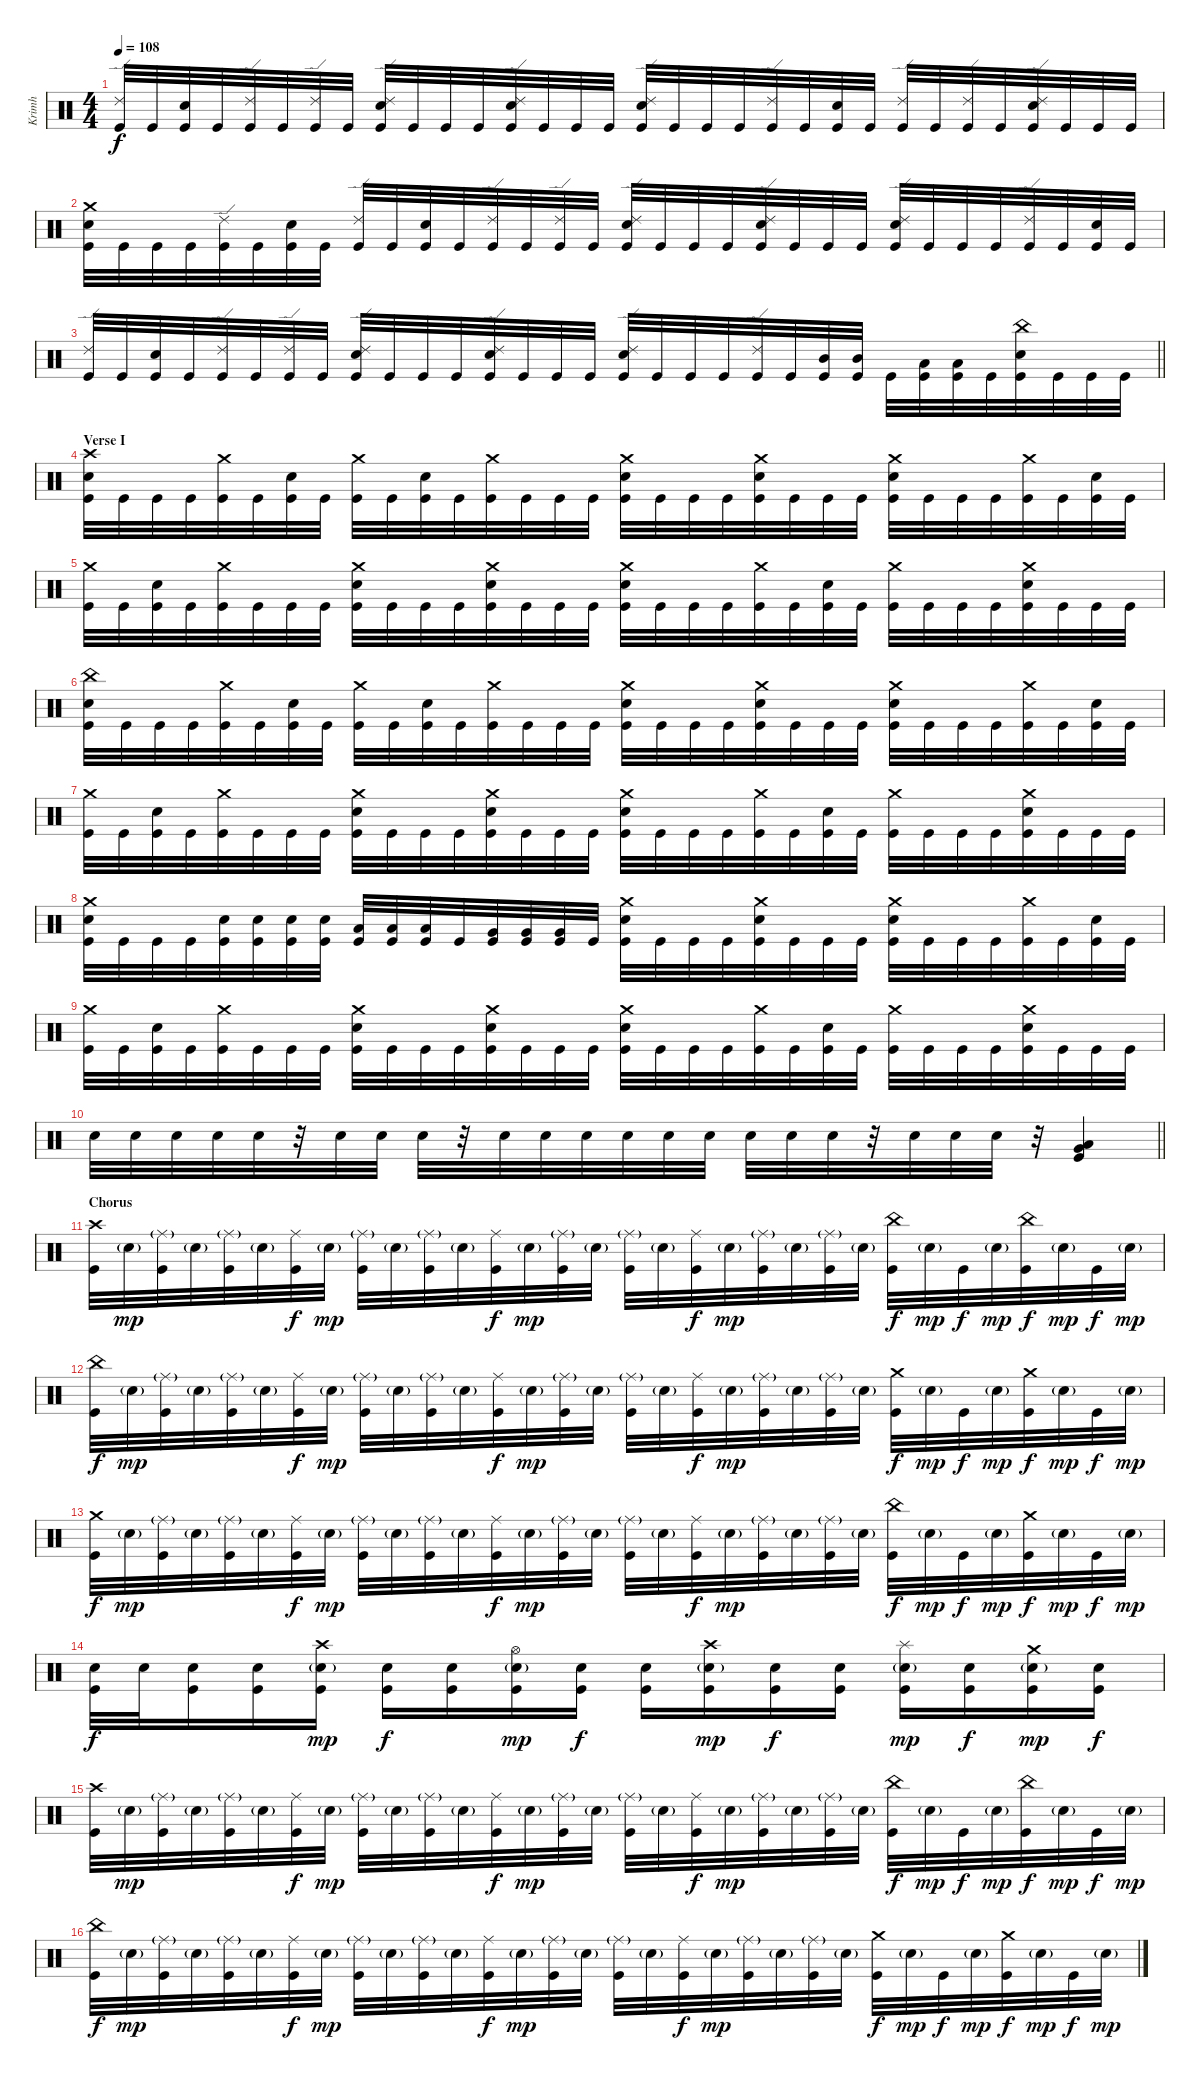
\track ("Krimh" "Krimh") {instrument percussion}
\staff {score}
\articulation defaults
\ts (4 4)
\tempo 108
\clef neutral
\ks c
("Ride (edge) 2" "Kick (hit)").32{dy f} "Kick (hit)".32 ("Electric Snare (hit)" "Kick (hit)").32 "Kick (hit)".32 ("Ride (edge) 2" "Kick (hit)").32 "Kick (hit)".32 ("Ride (edge) 2" "Kick (hit)").32 "Kick (hit)".32 ("Ride (edge) 2" "Electric Snare (hit)" "Kick (hit)").32 "Kick (hit)".32 "Kick (hit)".32 "Kick (hit)".32 ("Ride (edge) 2" "Electric Snare (hit)" "Kick (hit)").32 "Kick (hit)".32 "Kick (hit)".32 "Kick (hit)".32 ("Ride (edge) 2" "Electric Snare (hit)" "Kick (hit)").32 "Kick (hit)".32 "Kick (hit)".32 "Kick (hit)".32 ("Ride (edge) 2" "Kick (hit)").32 "Kick (hit)".32 ("Electric Snare (hit)" "Kick (hit)").32 "Kick (hit)".32 ("Ride (edge) 2" "Kick (hit)").32 "Kick (hit)".32 ("Ride (edge) 2" "Kick (hit)").32 "Kick (hit)".32 ("Ride (edge) 2" "Electric Snare (hit)" "Kick (hit)").32 "Kick (hit)".32 "Kick (hit)".32 "Kick (hit)".32 |
("Crash medium (hit)" "Electric Snare (hit)" "Kick (hit)").32 "Kick (hit)".32 "Kick (hit)".32 "Kick (hit)".32 ("Ride (edge) 2" "Kick (hit)").32 "Kick (hit)".32 ("Electric Snare (hit)" "Kick (hit)").32 "Kick (hit)".32 ("Ride (edge) 2" "Kick (hit)").32 "Kick (hit)".32 ("Electric Snare (hit)" "Kick (hit)").32 "Kick (hit)".32 ("Ride (edge) 2" "Kick (hit)").32 "Kick (hit)".32 ("Ride (edge) 2" "Kick (hit)").32 "Kick (hit)".32 ("Ride (edge) 2" "Electric Snare (hit)" "Kick (hit)").32 "Kick (hit)".32 "Kick (hit)".32 "Kick (hit)".32 ("Ride (edge) 2" "Electric Snare (hit)" "Kick (hit)").32 "Kick (hit)".32 "Kick (hit)".32 "Kick (hit)".32 ("Ride (edge) 2" "Electric Snare (hit)" "Kick (hit)").32 "Kick (hit)".32 "Kick (hit)".32 "Kick (hit)".32 ("Ride (edge) 2" "Kick (hit)").32 "Kick (hit)".32 ("Electric Snare (hit)" "Kick (hit)").32 "Kick (hit)".32 |
\barLineRight lightlight
("Ride (edge) 2" "Kick (hit)").32 "Kick (hit)".32 ("Electric Snare (hit)" "Kick (hit)").32 "Kick (hit)".32 ("Ride (edge) 2" "Kick (hit)").32 "Kick (hit)".32 ("Ride (edge) 2" "Kick (hit)").32 "Kick (hit)".32 ("Ride (edge) 2" "Electric Snare (hit)" "Kick (hit)").32 "Kick (hit)".32 "Kick (hit)".32 "Kick (hit)".32 ("Ride (edge) 2" "Electric Snare (hit)" "Kick (hit)").32 "Kick (hit)".32 "Kick (hit)".32 "Kick (hit)".32 ("Ride (edge) 2" "Electric Snare (hit)" "Kick (hit)").32 "Kick (hit)".32 "Kick (hit)".32 "Kick (hit)".32 ("Ride (edge) 2" "Kick (hit)").32 "Kick (hit)".32 ("Mid Tom (hit)" "Kick (hit)").32 ("Mid Tom (hit)" "Kick (hit)").32 "Kick (hit)".32 ("Low Tom (hit)" "Kick (hit)").32 ("Low Tom (hit)" "Kick (hit)").32 "Kick (hit)".32 ("China (hit)" "Electric Snare (hit)" "Kick (hit)").32 "Kick (hit)".32 "Kick (hit)".32 "Kick (hit)".32 |
\section ("" "Verse I")
("Crash high (hit)" "Electric Snare (hit)" "Kick (hit)").32 "Kick (hit)".32 "Kick (hit)".32 "Kick (hit)".32 ("Crash medium (hit)" "Kick (hit)").32 "Kick (hit)".32 ("Electric Snare (hit)" "Kick (hit)").32 "Kick (hit)".32 ("Crash medium (hit)" "Kick (hit)").32 "Kick (hit)".32 ("Electric Snare (hit)" "Kick (hit)").32 "Kick (hit)".32 ("Crash medium (hit)" "Kick (hit)").32 "Kick (hit)".32 "Kick (hit)".32 "Kick (hit)".32 ("Crash medium (hit)" "Electric Snare (hit)" "Kick (hit)").32 "Kick (hit)".32 "Kick (hit)".32 "Kick (hit)".32 ("Crash medium (hit)" "Electric Snare (hit)" "Kick (hit)").32 "Kick (hit)".32 "Kick (hit)".32 "Kick (hit)".32 ("Crash medium (hit)" "Electric Snare (hit)" "Kick (hit)").32 "Kick (hit)".32 "Kick (hit)".32 "Kick (hit)".32 ("Crash medium (hit)" "Kick (hit)").32 "Kick (hit)".32 ("Electric Snare (hit)" "Kick (hit)").32 "Kick (hit)".32 |
("Crash medium (hit)" "Kick (hit)").32 "Kick (hit)".32 ("Electric Snare (hit)" "Kick (hit)").32 "Kick (hit)".32 ("Crash medium (hit)" "Kick (hit)").32 "Kick (hit)".32 "Kick (hit)".32 "Kick (hit)".32 ("Crash medium (hit)" "Electric Snare (hit)" "Kick (hit)").32 "Kick (hit)".32 "Kick (hit)".32 "Kick (hit)".32 ("Crash medium (hit)" "Electric Snare (hit)" "Kick (hit)").32 "Kick (hit)".32 "Kick (hit)".32 "Kick (hit)".32 ("Crash medium (hit)" "Electric Snare (hit)" "Kick (hit)").32 "Kick (hit)".32 "Kick (hit)".32 "Kick (hit)".32 ("Crash medium (hit)" "Kick (hit)").32 "Kick (hit)".32 ("Electric Snare (hit)" "Kick (hit)").32 "Kick (hit)".32 ("Crash medium (hit)" "Kick (hit)").32 "Kick (hit)".32 "Kick (hit)".32 "Kick (hit)".32 ("Crash medium (hit)" "Electric Snare (hit)" "Kick (hit)").32 "Kick (hit)".32 "Kick (hit)".32 "Kick (hit)".32 |
("China (hit)" "Electric Snare (hit)" "Kick (hit)").32 "Kick (hit)".32 "Kick (hit)".32 "Kick (hit)".32 ("Crash medium (hit)" "Kick (hit)").32 "Kick (hit)".32 ("Electric Snare (hit)" "Kick (hit)").32 "Kick (hit)".32 ("Crash medium (hit)" "Kick (hit)").32 "Kick (hit)".32 ("Electric Snare (hit)" "Kick (hit)").32 "Kick (hit)".32 ("Crash medium (hit)" "Kick (hit)").32 "Kick (hit)".32 "Kick (hit)".32 "Kick (hit)".32 ("Crash medium (hit)" "Electric Snare (hit)" "Kick (hit)").32 "Kick (hit)".32 "Kick (hit)".32 "Kick (hit)".32 ("Crash medium (hit)" "Electric Snare (hit)" "Kick (hit)").32 "Kick (hit)".32 "Kick (hit)".32 "Kick (hit)".32 ("Crash medium (hit)" "Electric Snare (hit)" "Kick (hit)").32 "Kick (hit)".32 "Kick (hit)".32 "Kick (hit)".32 ("Crash medium (hit)" "Kick (hit)").32 "Kick (hit)".32 ("Electric Snare (hit)" "Kick (hit)").32 "Kick (hit)".32 |
("Crash medium (hit)" "Kick (hit)").32 "Kick (hit)".32 ("Electric Snare (hit)" "Kick (hit)").32 "Kick (hit)".32 ("Crash medium (hit)" "Kick (hit)").32 "Kick (hit)".32 "Kick (hit)".32 "Kick (hit)".32 ("Crash medium (hit)" "Electric Snare (hit)" "Kick (hit)").32 "Kick (hit)".32 "Kick (hit)".32 "Kick (hit)".32 ("Crash medium (hit)" "Electric Snare (hit)" "Kick (hit)").32 "Kick (hit)".32 "Kick (hit)".32 "Kick (hit)".32 ("Crash medium (hit)" "Electric Snare (hit)" "Kick (hit)").32 "Kick (hit)".32 "Kick (hit)".32 "Kick (hit)".32 ("Crash medium (hit)" "Kick (hit)").32 "Kick (hit)".32 ("Electric Snare (hit)" "Kick (hit)").32 "Kick (hit)".32 ("Crash medium (hit)" "Kick (hit)").32 "Kick (hit)".32 "Kick (hit)".32 "Kick (hit)".32 ("Crash medium (hit)" "Electric Snare (hit)" "Kick (hit)").32 "Kick (hit)".32 "Kick (hit)".32 "Kick (hit)".32 |
("Crash medium (hit)" "Electric Snare (hit)" "Kick (hit)").32 "Kick (hit)".32 "Kick (hit)".32 "Kick (hit)".32 ("Electric Snare (hit)" "Kick (hit)").32 ("Electric Snare (hit)" "Kick (hit)").32 ("Electric Snare (hit)" "Kick (hit)").32 ("Electric Snare (hit)" "Kick (hit)").32 ("Low Tom (hit)" "Kick (hit)").32 ("Low Tom (hit)" "Kick (hit)").32 ("Low Tom (hit)" "Kick (hit)").32 "Kick (hit)".32 ("Very Low Tom (hit)" "Kick (hit)").32 ("Very Low Tom (hit)" "Kick (hit)").32 ("Very Low Tom (hit)" "Kick (hit)").32 "Kick (hit)".32 ("Crash medium (hit)" "Electric Snare (hit)" "Kick (hit)").32 "Kick (hit)".32 "Kick (hit)".32 "Kick (hit)".32 ("Crash medium (hit)" "Electric Snare (hit)" "Kick (hit)").32 "Kick (hit)".32 "Kick (hit)".32 "Kick (hit)".32 ("Crash medium (hit)" "Electric Snare (hit)" "Kick (hit)").32 "Kick (hit)".32 "Kick (hit)".32 "Kick (hit)".32 ("Crash medium (hit)" "Kick (hit)").32 "Kick (hit)".32 ("Electric Snare (hit)" "Kick (hit)").32 "Kick (hit)".32 |
("Crash medium (hit)" "Kick (hit)").32 "Kick (hit)".32 ("Electric Snare (hit)" "Kick (hit)").32 "Kick (hit)".32 ("Crash medium (hit)" "Kick (hit)").32 "Kick (hit)".32 "Kick (hit)".32 "Kick (hit)".32 ("Crash medium (hit)" "Electric Snare (hit)" "Kick (hit)").32 "Kick (hit)".32 "Kick (hit)".32 "Kick (hit)".32 ("Crash medium (hit)" "Electric Snare (hit)" "Kick (hit)").32 "Kick (hit)".32 "Kick (hit)".32 "Kick (hit)".32 ("Crash medium (hit)" "Electric Snare (hit)" "Kick (hit)").32 "Kick (hit)".32 "Kick (hit)".32 "Kick (hit)".32 ("Crash medium (hit)" "Kick (hit)").32 "Kick (hit)".32 ("Electric Snare (hit)" "Kick (hit)").32 "Kick (hit)".32 ("Crash medium (hit)" "Kick (hit)").32 "Kick (hit)".32 "Kick (hit)".32 "Kick (hit)".32 ("Crash medium (hit)" "Electric Snare (hit)" "Kick (hit)").32 "Kick (hit)".32 "Kick (hit)".32 "Kick (hit)".32 |
\barLineRight lightlight "Electric Snare (hit)".32 "Electric Snare (hit)".32 "Electric Snare (hit)".32 "Electric Snare (hit)".32 "Electric Snare (hit)".32
r.32 "Electric Snare (hit)".32 "Electric Snare (hit)".32 "Electric Snare (hit)".32 r.32 "Electric Snare (hit)".32 "Electric Snare (hit)".32 "Electric Snare (hit)".32 "Electric Snare (hit)".32 "Electric Snare (hit)".32 "Electric Snare (hit)".32 "Electric Snare (hit)".32 "Electric Snare (hit)".32 "Electric Snare (hit)".32 r.32 "Electric Snare (hit)".32 "Electric Snare (hit)".32 "Electric Snare (hit)".32 r.32 ("Low Tom (hit)" "Very Low Tom (hit)" "Kick (hit)").4 |
\section ("" "Chorus")
("Crash high (hit)" "Kick (hit)").32 "Electric Snare (hit)"{g}.32{dy mp} ("Ride (middle)"{g} "Kick (hit)").32 "Electric Snare (hit)"{g}.32 ("Ride (middle)"{g} "Kick (hit)").32 "Electric Snare (hit)"{g}.32 ("Ride (middle)" "Kick (hit)").32{dy f} "Electric Snare (hit)"{g}.32{dy mp} ("Ride (middle)"{g} "Kick (hit)").32 "Electric Snare (hit)"{g}.32 ("Ride (middle)"{g} "Kick (hit)").32 "Electric Snare (hit)"{g}.32 ("Ride (middle)" "Kick (hit)").32{dy f} "Electric Snare (hit)"{g}.32{dy mp} ("Ride (middle)"{g} "Kick (hit)").32 "Electric Snare (hit)"{g}.32 ("Ride (middle)"{g} "Kick (hit)").32 "Electric Snare (hit)"{g}.32 ("Ride (middle)" "Kick (hit)").32{dy f} "Electric Snare (hit)"{g}.32{dy mp} ("Ride (middle)"{g} "Kick (hit)").32 "Electric Snare (hit)"{g}.32 ("Ride (middle)"{g} "Kick (hit)").32 "Electric Snare (hit)"{g}.32 ("China (hit)" "Kick (hit)").32{dy f} "Electric Snare (hit)"{g}.32{dy mp} "Kick (hit)".32{dy f} "Electric Snare (hit)"{g}.32{dy mp} ("China (hit)" "Kick (hit)").32{dy f} "Electric Snare (hit)"{g}.32{dy mp} "Kick (hit)".32{dy f} "Electric Snare (hit)"{g}.32{dy mp} |
("China (hit)" "Kick (hit)").32{dy f} "Electric Snare (hit)"{g}.32{dy mp} ("Ride (middle)"{g} "Kick (hit)").32 "Electric Snare (hit)"{g}.32 ("Ride (middle)"{g} "Kick (hit)").32 "Electric Snare (hit)"{g}.32 ("Ride (middle)" "Kick (hit)").32{dy f} "Electric Snare (hit)"{g}.32{dy mp} ("Ride (middle)"{g} "Kick (hit)").32 "Electric Snare (hit)"{g}.32 ("Ride (middle)"{g} "Kick (hit)").32 "Electric Snare (hit)"{g}.32 ("Ride (middle)" "Kick (hit)").32{dy f} "Electric Snare (hit)"{g}.32{dy mp} ("Ride (middle)"{g} "Kick (hit)").32 "Electric Snare (hit)"{g}.32 ("Ride (middle)"{g} "Kick (hit)").32 "Electric Snare (hit)"{g}.32 ("Ride (middle)" "Kick (hit)").32{dy f} "Electric Snare (hit)"{g}.32{dy mp} ("Ride (middle)"{g} "Kick (hit)").32 "Electric Snare (hit)"{g}.32 ("Ride (middle)"{g} "Kick (hit)").32 "Electric Snare (hit)"{g}.32 ("Crash medium (hit)" "Kick (hit)").32{dy f} "Electric Snare (hit)"{g}.32{dy mp} "Kick (hit)".32{dy f} "Electric Snare (hit)"{g}.32{dy mp} ("Crash medium (hit)" "Kick (hit)").32{dy f} "Electric Snare (hit)"{g}.32{dy mp} "Kick (hit)".32{dy f} "Electric Snare (hit)"{g}.32{dy mp} |
("Crash medium (hit)" "Kick (hit)").32{dy f} "Electric Snare (hit)"{g}.32{dy mp} ("Ride (middle)"{g} "Kick (hit)").32 "Electric Snare (hit)"{g}.32 ("Ride (middle)"{g} "Kick (hit)").32 "Electric Snare (hit)"{g}.32 ("Ride (middle)" "Kick (hit)").32{dy f} "Electric Snare (hit)"{g}.32{dy mp} ("Ride (middle)"{g} "Kick (hit)").32 "Electric Snare (hit)"{g}.32 ("Ride (middle)"{g} "Kick (hit)").32 "Electric Snare (hit)"{g}.32 ("Ride (middle)" "Kick (hit)").32{dy f} "Electric Snare (hit)"{g}.32{dy mp} ("Ride (middle)"{g} "Kick (hit)").32 "Electric Snare (hit)"{g}.32 ("Ride (middle)"{g} "Kick (hit)").32 "Electric Snare (hit)"{g}.32 ("Ride (middle)" "Kick (hit)").32{dy f} "Electric Snare (hit)"{g}.32{dy mp} ("Ride (middle)"{g} "Kick (hit)").32 "Electric Snare (hit)"{g}.32 ("Ride (middle)"{g} "Kick (hit)").32 "Electric Snare (hit)"{g}.32 ("China (hit)" "Kick (hit)").32{dy f} "Electric Snare (hit)"{g}.32{dy mp} "Kick (hit)".32{dy f} "Electric Snare (hit)"{g}.32{dy mp} ("Crash medium (hit)" "Kick (hit)").32{dy f} "Electric Snare (hit)"{g}.32{dy mp} "Kick (hit)".32{dy f} "Electric Snare (hit)"{g}.32{dy mp} |
("Electric Snare (hit)" "Kick (hit)").32{dy f} "Electric Snare (hit)".32 ("Electric Snare (hit)" "Kick (hit)").16 ("Electric Snare (hit)" "Kick (hit)").16 ("Crash high (hit)" "Electric Snare (hit)"{g} "Kick (hit)").16{dy mp} ("Electric Snare (hit)" "Kick (hit)").16{dy f} ("Electric Snare (hit)" "Kick (hit)").16 ("Hi-Hat (open)" "Electric Snare (hit)"{g} "Kick (hit)").16{dy mp} ("Electric Snare (hit)" "Kick (hit)").16{dy f} ("Electric Snare (hit)" "Kick (hit)").16 ("Crash high (hit)" "Electric Snare (hit)"{g} "Kick (hit)").16{dy mp} ("Electric Snare (hit)" "Kick (hit)").16{dy f} ("Electric Snare (hit)" "Kick (hit)").16 ("Splash (hit)" "Electric Snare (hit)"{g} "Kick (hit)").16{dy mp} ("Electric Snare (hit)" "Kick (hit)").16{dy f} ("Crash medium (hit)" "Electric Snare (hit)"{g} "Kick (hit)").16{dy mp} ("Electric Snare (hit)" "Kick (hit)").16{dy f} |
("Crash high (hit)" "Kick (hit)").32 "Electric Snare (hit)"{g}.32{dy mp} ("Ride (middle)"{g} "Kick (hit)").32 "Electric Snare (hit)"{g}.32 ("Ride (middle)"{g} "Kick (hit)").32 "Electric Snare (hit)"{g}.32 ("Ride (middle)" "Kick (hit)").32{dy f} "Electric Snare (hit)"{g}.32{dy mp} ("Ride (middle)"{g} "Kick (hit)").32 "Electric Snare (hit)"{g}.32 ("Ride (middle)"{g} "Kick (hit)").32 "Electric Snare (hit)"{g}.32 ("Ride (middle)" "Kick (hit)").32{dy f} "Electric Snare (hit)"{g}.32{dy mp} ("Ride (middle)"{g} "Kick (hit)").32 "Electric Snare (hit)"{g}.32 ("Ride (middle)"{g} "Kick (hit)").32 "Electric Snare (hit)"{g}.32 ("Ride (middle)" "Kick (hit)").32{dy f} "Electric Snare (hit)"{g}.32{dy mp} ("Ride (middle)"{g} "Kick (hit)").32 "Electric Snare (hit)"{g}.32 ("Ride (middle)"{g} "Kick (hit)").32 "Electric Snare (hit)"{g}.32 ("China (hit)" "Kick (hit)").32{dy f} "Electric Snare (hit)"{g}.32{dy mp} "Kick (hit)".32{dy f} "Electric Snare (hit)"{g}.32{dy mp} ("China (hit)" "Kick (hit)").32{dy f} "Electric Snare (hit)"{g}.32{dy mp} "Kick (hit)".32{dy f} "Electric Snare (hit)"{g}.32{dy mp} |
("China (hit)" "Kick (hit)").32{dy f} "Electric Snare (hit)"{g}.32{dy mp} ("Ride (middle)"{g} "Kick (hit)").32 "Electric Snare (hit)"{g}.32 ("Ride (middle)"{g} "Kick (hit)").32 "Electric Snare (hit)"{g}.32 ("Ride (middle)" "Kick (hit)").32{dy f} "Electric Snare (hit)"{g}.32{dy mp} ("Ride (middle)"{g} "Kick (hit)").32 "Electric Snare (hit)"{g}.32 ("Ride (middle)"{g} "Kick (hit)").32 "Electric Snare (hit)"{g}.32 ("Ride (middle)" "Kick (hit)").32{dy f} "Electric Snare (hit)"{g}.32{dy mp} ("Ride (middle)"{g} "Kick (hit)").32 "Electric Snare (hit)"{g}.32 ("Ride (middle)"{g} "Kick (hit)").32 "Electric Snare (hit)"{g}.32 ("Ride (middle)" "Kick (hit)").32{dy f} "Electric Snare (hit)"{g}.32{dy mp} ("Ride (middle)"{g} "Kick (hit)").32 "Electric Snare (hit)"{g}.32 ("Ride (middle)"{g} "Kick (hit)").32 "Electric Snare (hit)"{g}.32 ("Crash medium (hit)" "Kick (hit)").32{dy f} "Electric Snare (hit)"{g}.32{dy mp} "Kick (hit)".32{dy f} "Electric Snare (hit)"{g}.32{dy mp} ("Crash medium (hit)" "Kick (hit)").32{dy f} "Electric Snare (hit)"{g}.32{dy mp} "Kick (hit)".32{dy f} "Electric Snare (hit)"{g}.32{dy mp}
